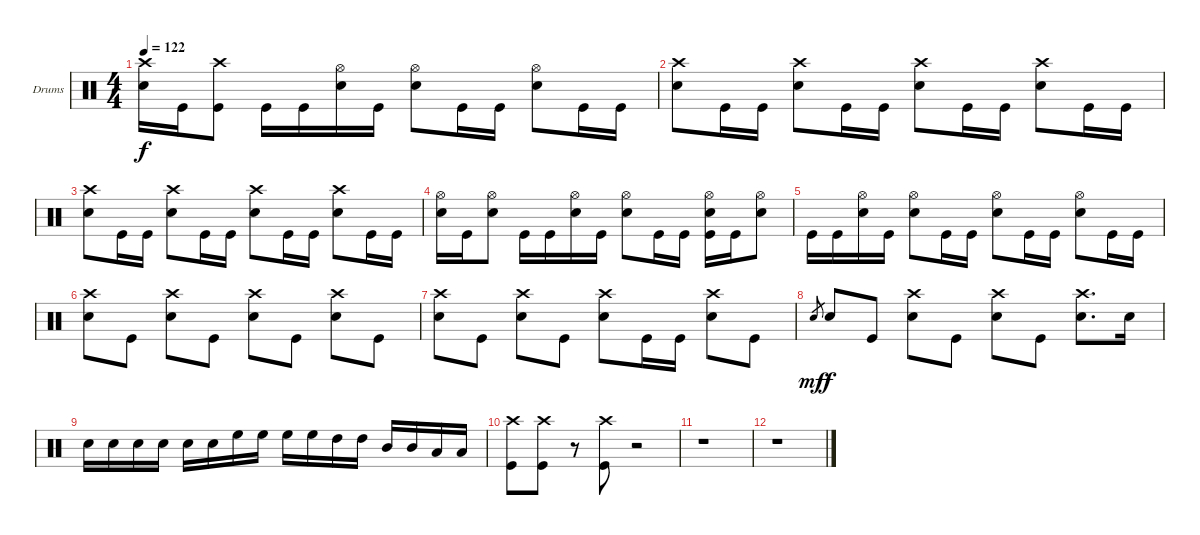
\bracketExtendMode groupsimilarinstruments
\firstSystemTrackNameOrientation horizontal
\otherSystemsTrackNameOrientation horizontal
\track ("Drumkit" "Drums") {instrument percussion}
\staff {score}
\articulation defaults
\ts (4 4)
\tempo 122
\clef neutral
\ks c
("Snare (hit) 2" "Crash high (hit)").16{dy f} "Kick (hit)".16 ("Kick (hit)" "Crash high (hit)").8 "Kick (hit)".16 "Kick (hit)".16 ("Snare (hit) 2" "Hi-Hat (open)").16 "Kick (hit)".16 ("Snare (hit) 2" "Hi-Hat (open)").8 "Kick (hit)".16 "Kick (hit)".16 ("Snare (hit) 2" "Hi-Hat (open)").8 "Kick (hit)".16 "Kick (hit)".16 |
("Snare (hit) 2" "Crash high (hit)").8 "Kick (hit)".16 "Kick (hit)".16 ("Snare (hit) 2" "Crash high (hit)").8 "Kick (hit)".16 "Kick (hit)".16 ("Snare (hit) 2" "Crash high (hit)").8 "Kick (hit)".16 "Kick (hit)".16 ("Snare (hit) 2" "Crash high (hit)").8 "Kick (hit)".16 "Kick (hit)".16 |
("Snare (hit) 2" "Crash high (hit)").8 "Kick (hit)".16 "Kick (hit)".16 ("Snare (hit) 2" "Crash high (hit)").8 "Kick (hit)".16 "Kick (hit)".16 ("Snare (hit) 2" "Crash high (hit)").8 "Kick (hit)".16 "Kick (hit)".16 ("Snare (hit) 2" "Crash high (hit)").8 "Kick (hit)".16 "Kick (hit)".16 |
("Snare (hit) 2" "Hi-Hat (open)").16 "Kick (hit)".16 ("Snare (hit) 2" "Hi-Hat (open)").8 "Kick (hit)".16 "Kick (hit)".16 ("Snare (hit) 2" "Hi-Hat (open)").16 "Kick (hit)".16 ("Snare (hit) 2" "Hi-Hat (open)").8 "Kick (hit)".16 "Kick (hit)".16 ("Kick (hit)" "Snare (hit) 2" "Hi-Hat (open)").16 "Kick (hit)".16 ("Snare (hit) 2" "Hi-Hat (open)").8 |
"Kick (hit)".16 "Kick (hit)".16 ("Snare (hit) 2" "Hi-Hat (open)").16 "Kick (hit)".16 ("Snare (hit) 2" "Hi-Hat (open)").8 "Kick (hit)".16 "Kick (hit)".16 ("Snare (hit) 2" "Hi-Hat (open)").8 "Kick (hit)".16 "Kick (hit)".16 ("Snare (hit) 2" "Hi-Hat (open)").8 "Kick (hit)".16 "Kick (hit)".16 |
("Snare (hit) 2" "Crash high (hit)").8 "Kick (hit)".8 ("Snare (hit) 2" "Crash high (hit)").8 "Kick (hit)".8 ("Snare (hit) 2" "Crash high (hit)").8 "Kick (hit)".8 ("Snare (hit) 2" "Crash high (hit)").8 "Kick (hit)".8 |
("Snare (hit) 2" "Crash high (hit)").8 "Kick (hit)".8 ("Snare (hit) 2" "Crash high (hit)").8 "Kick (hit)".8 ("Snare (hit) 2" "Crash high (hit)").8 "Kick (hit)".16 "Kick (hit)".16 ("Snare (hit) 2" "Crash high (hit)").8 "Kick (hit)".8 |
"Snare (hit) 2".8{gr dy mf} "Snare (hit) 2".8{dy f} "Kick (hit)".8 ("Snare (hit) 2" "Crash high (hit)").8 "Kick (hit)".8 ("Snare (hit) 2" "Crash high (hit)").8 "Kick (hit)".8 ("Snare (hit) 2" "Crash high (hit)").8{d} "Snare (hit) 2".16 |
"Snare (hit) 2".16 "Snare (hit) 2".16 "Snare (hit) 2".16 "Snare (hit) 2".16 "Snare (hit) 2".16 "Snare (hit) 2".16 "High Floor Tom (hit)".16 "High Floor Tom (hit)".16 "High Floor Tom (hit)".16 "High Floor Tom (hit)".16 "High Tom (hit)".16 "High Tom (hit)".16 "Mid Tom (hit)".16 "Mid Tom (hit)".16 "Low Tom (hit)".16 "Low Tom (hit)".16 |
("Kick (hit)" "Crash high (hit)").8 ("Kick (hit)" "Crash high (hit)").8 r.8 ("Kick (hit)" "Crash high (hit)").8 r.2 |
r.1 |
r.1
